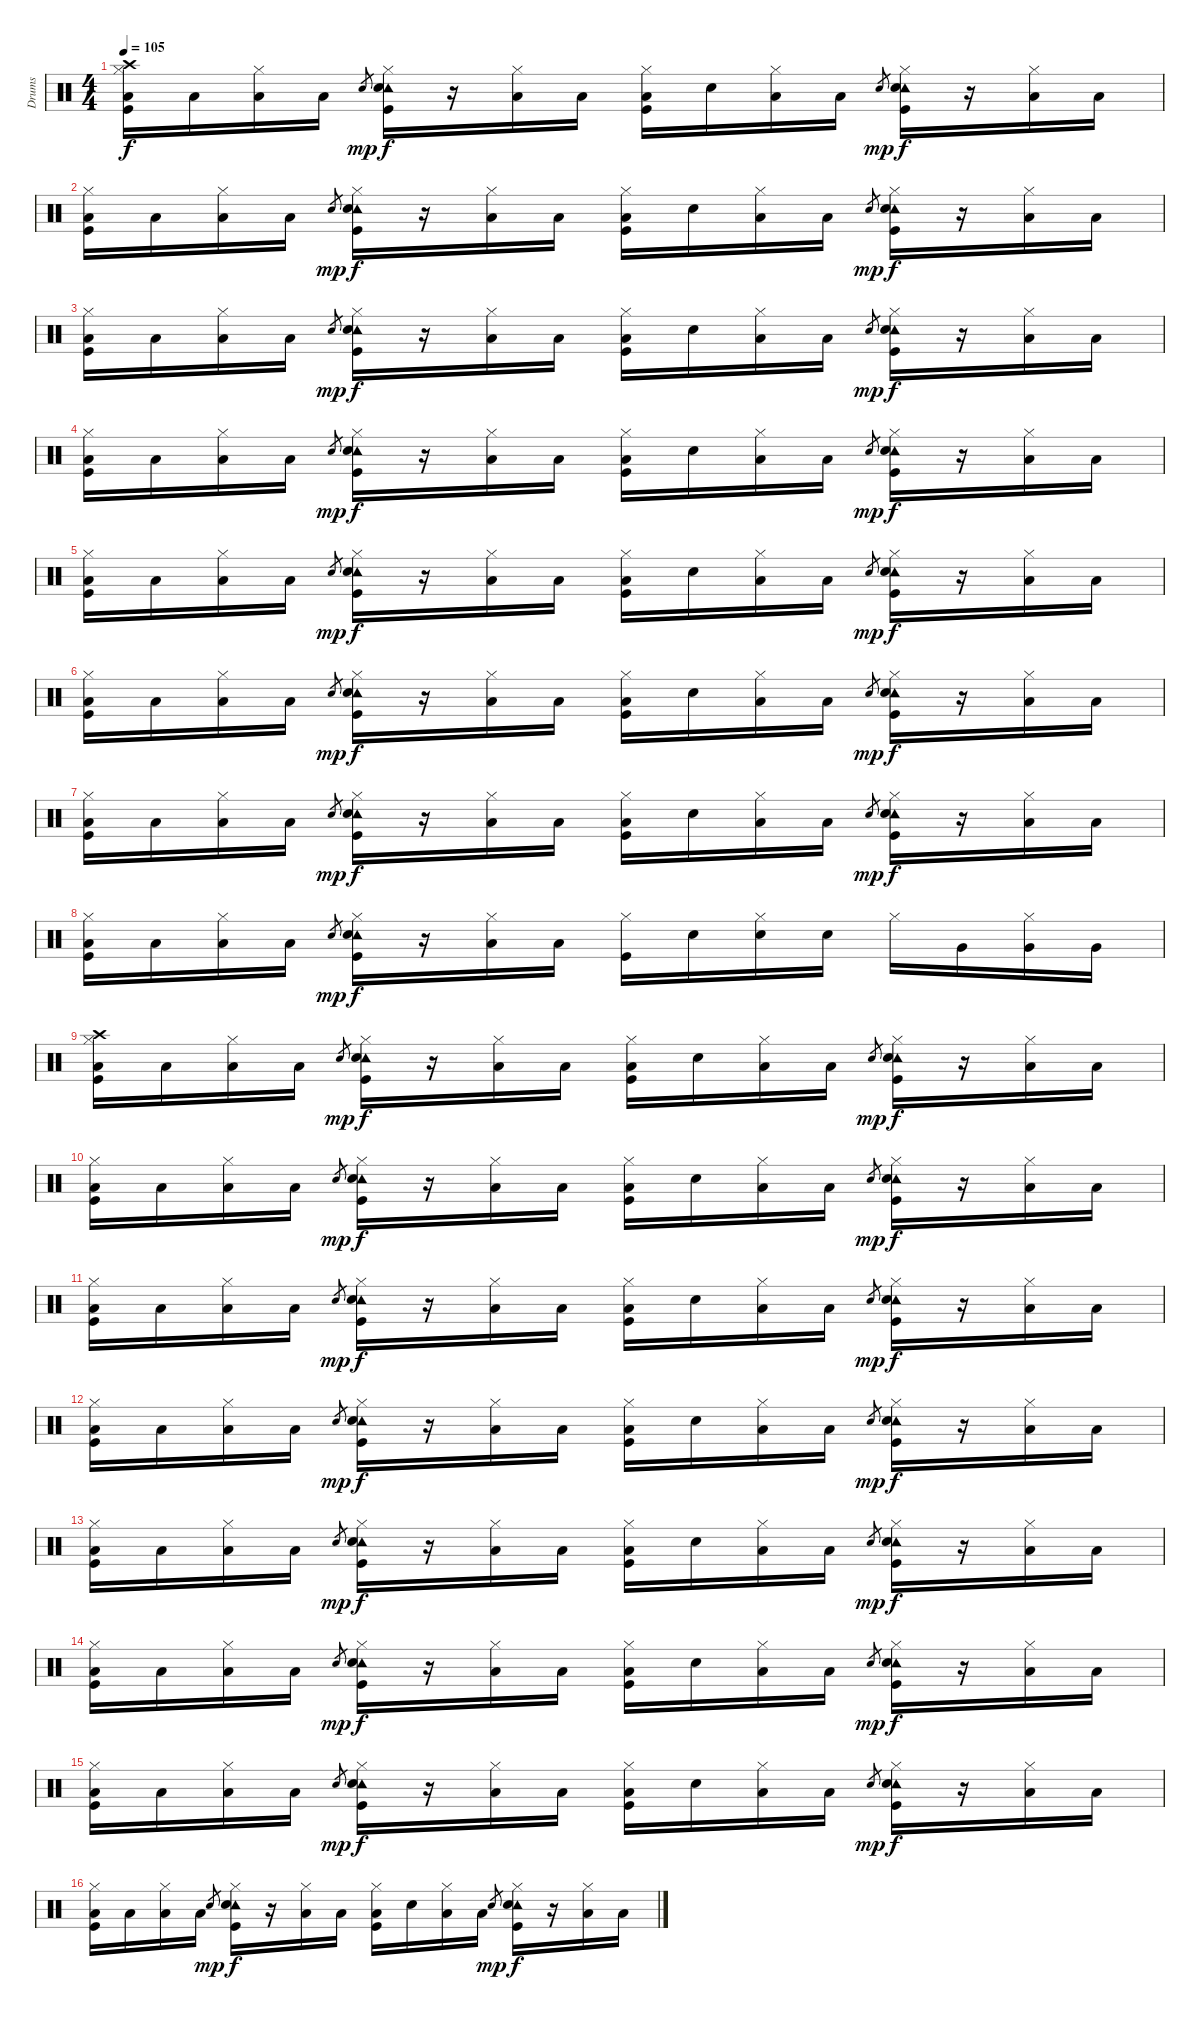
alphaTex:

\track ("Drums" "Drums") {instrument percussion}
\staff {score}
\articulation defaults
\ts (4 4)
\section ("" "")
\tempo 105
\clef neutral
\ks c
("Crash high (hit)" "Hi-Hat (closed)" "Low Floor Tom (hit)" "Kick (hit)").16{dy f} "Low Floor Tom (hit)".16 ("Hi-Hat (closed)" "Low Floor Tom (hit)").16 "Low Floor Tom (hit)".16 "Snare (hit) 2".8{gr dy mp} ("Tambourine (hit)" "Hi-Hat (closed)" "Snare (hit) 2" "Kick (hit)").16{dy f} r.16 ("Hi-Hat (closed)" "Low Floor Tom (hit)").16 "Low Floor Tom (hit)".16 ("Hi-Hat (closed)" "Low Floor Tom (hit)" "Kick (hit)").16 "Snare (hit) 2".16 ("Hi-Hat (closed)" "Low Floor Tom (hit)").16 "Low Floor Tom (hit)".16 "Snare (hit) 2".8{gr dy mp} ("Tambourine (hit)" "Hi-Hat (closed)" "Snare (hit) 2" "Kick (hit)").16{dy f} r.16 ("Hi-Hat (closed)" "Low Floor Tom (hit)").16 "Low Floor Tom (hit)".16 |
("Hi-Hat (closed)" "Low Floor Tom (hit)" "Kick (hit)").16 "Low Floor Tom (hit)".16 ("Hi-Hat (closed)" "Low Floor Tom (hit)").16 "Low Floor Tom (hit)".16 "Snare (hit) 2".8{gr dy mp} ("Tambourine (hit)" "Hi-Hat (closed)" "Snare (hit) 2" "Kick (hit)").16{dy f} r.16 ("Hi-Hat (closed)" "Low Floor Tom (hit)").16 "Low Floor Tom (hit)".16 ("Hi-Hat (closed)" "Low Floor Tom (hit)" "Kick (hit)").16 "Snare (hit) 2".16 ("Hi-Hat (closed)" "Low Floor Tom (hit)").16 "Low Floor Tom (hit)".16 "Snare (hit) 2".8{gr dy mp} ("Tambourine (hit)" "Hi-Hat (closed)" "Snare (hit) 2" "Kick (hit)").16{dy f} r.16 ("Hi-Hat (closed)" "Low Floor Tom (hit)").16 "Low Floor Tom (hit)".16 |
("Hi-Hat (closed)" "Low Floor Tom (hit)" "Kick (hit)").16 "Low Floor Tom (hit)".16 ("Hi-Hat (closed)" "Low Floor Tom (hit)").16 "Low Floor Tom (hit)".16 "Snare (hit) 2".8{gr dy mp} ("Tambourine (hit)" "Hi-Hat (closed)" "Snare (hit) 2" "Kick (hit)").16{dy f} r.16 ("Hi-Hat (closed)" "Low Floor Tom (hit)").16 "Low Floor Tom (hit)".16 ("Hi-Hat (closed)" "Low Floor Tom (hit)" "Kick (hit)").16 "Snare (hit) 2".16 ("Hi-Hat (closed)" "Low Floor Tom (hit)").16 "Low Floor Tom (hit)".16 "Snare (hit) 2".8{gr dy mp} ("Tambourine (hit)" "Hi-Hat (closed)" "Snare (hit) 2" "Kick (hit)").16{dy f} r.16 ("Hi-Hat (closed)" "Low Floor Tom (hit)").16 "Low Floor Tom (hit)".16 |
("Hi-Hat (closed)" "Low Floor Tom (hit)" "Kick (hit)").16 "Low Floor Tom (hit)".16 ("Hi-Hat (closed)" "Low Floor Tom (hit)").16 "Low Floor Tom (hit)".16 "Snare (hit) 2".8{gr dy mp} ("Tambourine (hit)" "Hi-Hat (closed)" "Snare (hit) 2" "Kick (hit)").16{dy f} r.16 ("Hi-Hat (closed)" "Low Floor Tom (hit)").16 "Low Floor Tom (hit)".16 ("Hi-Hat (closed)" "Low Floor Tom (hit)" "Kick (hit)").16 "Snare (hit) 2".16 ("Hi-Hat (closed)" "Low Floor Tom (hit)").16 "Low Floor Tom (hit)".16 "Snare (hit) 2".8{gr dy mp} ("Tambourine (hit)" "Hi-Hat (closed)" "Snare (hit) 2" "Kick (hit)").16{dy f} r.16 ("Hi-Hat (closed)" "Low Floor Tom (hit)").16 "Low Floor Tom (hit)".16 |
("Hi-Hat (closed)" "Low Floor Tom (hit)" "Kick (hit)").16 "Low Floor Tom (hit)".16 ("Hi-Hat (closed)" "Low Floor Tom (hit)").16 "Low Floor Tom (hit)".16 "Snare (hit) 2".8{gr dy mp} ("Tambourine (hit)" "Hi-Hat (closed)" "Snare (hit) 2" "Kick (hit)").16{dy f} r.16 ("Hi-Hat (closed)" "Low Floor Tom (hit)").16 "Low Floor Tom (hit)".16 ("Hi-Hat (closed)" "Low Floor Tom (hit)" "Kick (hit)").16 "Snare (hit) 2".16 ("Hi-Hat (closed)" "Low Floor Tom (hit)").16 "Low Floor Tom (hit)".16 "Snare (hit) 2".8{gr dy mp} ("Tambourine (hit)" "Hi-Hat (closed)" "Snare (hit) 2" "Kick (hit)").16{dy f} r.16 ("Hi-Hat (closed)" "Low Floor Tom (hit)").16 "Low Floor Tom (hit)".16 |
("Hi-Hat (closed)" "Low Floor Tom (hit)" "Kick (hit)").16 "Low Floor Tom (hit)".16 ("Hi-Hat (closed)" "Low Floor Tom (hit)").16 "Low Floor Tom (hit)".16 "Snare (hit) 2".8{gr dy mp} ("Tambourine (hit)" "Hi-Hat (closed)" "Snare (hit) 2" "Kick (hit)").16{dy f} r.16 ("Hi-Hat (closed)" "Low Floor Tom (hit)").16 "Low Floor Tom (hit)".16 ("Hi-Hat (closed)" "Low Floor Tom (hit)" "Kick (hit)").16 "Snare (hit) 2".16 ("Hi-Hat (closed)" "Low Floor Tom (hit)").16 "Low Floor Tom (hit)".16 "Snare (hit) 2".8{gr dy mp} ("Tambourine (hit)" "Hi-Hat (closed)" "Snare (hit) 2" "Kick (hit)").16{dy f} r.16 ("Hi-Hat (closed)" "Low Floor Tom (hit)").16 "Low Floor Tom (hit)".16 |
("Hi-Hat (closed)" "Low Floor Tom (hit)" "Kick (hit)").16 "Low Floor Tom (hit)".16 ("Hi-Hat (closed)" "Low Floor Tom (hit)").16 "Low Floor Tom (hit)".16 "Snare (hit) 2".8{gr dy mp} ("Tambourine (hit)" "Hi-Hat (closed)" "Snare (hit) 2" "Kick (hit)").16{dy f} r.16 ("Hi-Hat (closed)" "Low Floor Tom (hit)").16 "Low Floor Tom (hit)".16 ("Hi-Hat (closed)" "Low Floor Tom (hit)" "Kick (hit)").16 "Snare (hit) 2".16 ("Hi-Hat (closed)" "Low Floor Tom (hit)").16 "Low Floor Tom (hit)".16 "Snare (hit) 2".8{gr dy mp} ("Tambourine (hit)" "Hi-Hat (closed)" "Snare (hit) 2" "Kick (hit)").16{dy f} r.16 ("Hi-Hat (closed)" "Low Floor Tom (hit)").16 "Low Floor Tom (hit)".16 |
("Hi-Hat (closed)" "Low Floor Tom (hit)" "Kick (hit)").16 "Low Floor Tom (hit)".16 ("Hi-Hat (closed)" "Low Floor Tom (hit)").16 "Low Floor Tom (hit)".16 "Snare (hit) 2".8{gr dy mp} ("Tambourine (hit)" "Hi-Hat (closed)" "Snare (hit) 2" "Kick (hit)").16{dy f} r.16 ("Hi-Hat (closed)" "Low Floor Tom (hit)").16 "Low Floor Tom (hit)".16 ("Hi-Hat (closed)" "Kick (hit)").16 "Snare (hit) 2".16 ("Hi-Hat (closed)" "Snare (hit) 2").16 "Snare (hit) 2".16 "Hi-Hat (closed)".16 "Very Low Tom (hit)".16 ("Hi-Hat (closed)" "Very Low Tom (hit)").16 "Very Low Tom (hit)".16 |
("Crash high (hit)" "Hi-Hat (closed)" "Low Floor Tom (hit)" "Kick (hit)").16 "Low Floor Tom (hit)".16 ("Hi-Hat (closed)" "Low Floor Tom (hit)").16 "Low Floor Tom (hit)".16 "Snare (hit) 2".8{gr dy mp} ("Tambourine (hit)" "Hi-Hat (closed)" "Snare (hit) 2" "Kick (hit)").16{dy f} r.16 ("Hi-Hat (closed)" "Low Floor Tom (hit)").16 "Low Floor Tom (hit)".16 ("Hi-Hat (closed)" "Low Floor Tom (hit)" "Kick (hit)").16 "Snare (hit) 2".16 ("Hi-Hat (closed)" "Low Floor Tom (hit)").16 "Low Floor Tom (hit)".16 "Snare (hit) 2".8{gr dy mp} ("Tambourine (hit)" "Hi-Hat (closed)" "Snare (hit) 2" "Kick (hit)").16{dy f} r.16 ("Hi-Hat (closed)" "Low Floor Tom (hit)").16 "Low Floor Tom (hit)".16 |
("Hi-Hat (closed)" "Low Floor Tom (hit)" "Kick (hit)").16 "Low Floor Tom (hit)".16 ("Hi-Hat (closed)" "Low Floor Tom (hit)").16 "Low Floor Tom (hit)".16 "Snare (hit) 2".8{gr dy mp} ("Tambourine (hit)" "Hi-Hat (closed)" "Snare (hit) 2" "Kick (hit)").16{dy f} r.16 ("Hi-Hat (closed)" "Low Floor Tom (hit)").16 "Low Floor Tom (hit)".16 ("Hi-Hat (closed)" "Low Floor Tom (hit)" "Kick (hit)").16 "Snare (hit) 2".16 ("Hi-Hat (closed)" "Low Floor Tom (hit)").16 "Low Floor Tom (hit)".16 "Snare (hit) 2".8{gr dy mp} ("Tambourine (hit)" "Hi-Hat (closed)" "Snare (hit) 2" "Kick (hit)").16{dy f} r.16 ("Hi-Hat (closed)" "Low Floor Tom (hit)").16 "Low Floor Tom (hit)".16 |
("Hi-Hat (closed)" "Low Floor Tom (hit)" "Kick (hit)").16 "Low Floor Tom (hit)".16 ("Hi-Hat (closed)" "Low Floor Tom (hit)").16 "Low Floor Tom (hit)".16 "Snare (hit) 2".8{gr dy mp} ("Tambourine (hit)" "Hi-Hat (closed)" "Snare (hit) 2" "Kick (hit)").16{dy f} r.16 ("Hi-Hat (closed)" "Low Floor Tom (hit)").16 "Low Floor Tom (hit)".16 ("Hi-Hat (closed)" "Low Floor Tom (hit)" "Kick (hit)").16 "Snare (hit) 2".16 ("Hi-Hat (closed)" "Low Floor Tom (hit)").16 "Low Floor Tom (hit)".16 "Snare (hit) 2".8{gr dy mp} ("Tambourine (hit)" "Hi-Hat (closed)" "Snare (hit) 2" "Kick (hit)").16{dy f} r.16 ("Hi-Hat (closed)" "Low Floor Tom (hit)").16 "Low Floor Tom (hit)".16 |
("Hi-Hat (closed)" "Low Floor Tom (hit)" "Kick (hit)").16 "Low Floor Tom (hit)".16 ("Hi-Hat (closed)" "Low Floor Tom (hit)").16 "Low Floor Tom (hit)".16 "Snare (hit) 2".8{gr dy mp} ("Tambourine (hit)" "Hi-Hat (closed)" "Snare (hit) 2" "Kick (hit)").16{dy f} r.16 ("Hi-Hat (closed)" "Low Floor Tom (hit)").16 "Low Floor Tom (hit)".16 ("Hi-Hat (closed)" "Low Floor Tom (hit)" "Kick (hit)").16 "Snare (hit) 2".16 ("Hi-Hat (closed)" "Low Floor Tom (hit)").16 "Low Floor Tom (hit)".16 "Snare (hit) 2".8{gr dy mp} ("Tambourine (hit)" "Hi-Hat (closed)" "Snare (hit) 2" "Kick (hit)").16{dy f} r.16 ("Hi-Hat (closed)" "Low Floor Tom (hit)").16 "Low Floor Tom (hit)".16 |
("Hi-Hat (closed)" "Low Floor Tom (hit)" "Kick (hit)").16 "Low Floor Tom (hit)".16 ("Hi-Hat (closed)" "Low Floor Tom (hit)").16 "Low Floor Tom (hit)".16 "Snare (hit) 2".8{gr dy mp} ("Tambourine (hit)" "Hi-Hat (closed)" "Snare (hit) 2" "Kick (hit)").16{dy f} r.16 ("Hi-Hat (closed)" "Low Floor Tom (hit)").16 "Low Floor Tom (hit)".16 ("Hi-Hat (closed)" "Low Floor Tom (hit)" "Kick (hit)").16 "Snare (hit) 2".16 ("Hi-Hat (closed)" "Low Floor Tom (hit)").16 "Low Floor Tom (hit)".16 "Snare (hit) 2".8{gr dy mp} ("Tambourine (hit)" "Hi-Hat (closed)" "Snare (hit) 2" "Kick (hit)").16{dy f} r.16 ("Hi-Hat (closed)" "Low Floor Tom (hit)").16 "Low Floor Tom (hit)".16 |
("Hi-Hat (closed)" "Low Floor Tom (hit)" "Kick (hit)").16 "Low Floor Tom (hit)".16 ("Hi-Hat (closed)" "Low Floor Tom (hit)").16 "Low Floor Tom (hit)".16 "Snare (hit) 2".8{gr dy mp} ("Tambourine (hit)" "Hi-Hat (closed)" "Snare (hit) 2" "Kick (hit)").16{dy f} r.16 ("Hi-Hat (closed)" "Low Floor Tom (hit)").16 "Low Floor Tom (hit)".16 ("Hi-Hat (closed)" "Low Floor Tom (hit)" "Kick (hit)").16 "Snare (hit) 2".16 ("Hi-Hat (closed)" "Low Floor Tom (hit)").16 "Low Floor Tom (hit)".16 "Snare (hit) 2".8{gr dy mp} ("Tambourine (hit)" "Hi-Hat (closed)" "Snare (hit) 2" "Kick (hit)").16{dy f} r.16 ("Hi-Hat (closed)" "Low Floor Tom (hit)").16 "Low Floor Tom (hit)".16 |
("Hi-Hat (closed)" "Low Floor Tom (hit)" "Kick (hit)").16 "Low Floor Tom (hit)".16 ("Hi-Hat (closed)" "Low Floor Tom (hit)").16 "Low Floor Tom (hit)".16 "Snare (hit) 2".8{gr dy mp} ("Tambourine (hit)" "Hi-Hat (closed)" "Snare (hit) 2" "Kick (hit)").16{dy f} r.16 ("Hi-Hat (closed)" "Low Floor Tom (hit)").16 "Low Floor Tom (hit)".16 ("Hi-Hat (closed)" "Low Floor Tom (hit)" "Kick (hit)").16 "Snare (hit) 2".16 ("Hi-Hat (closed)" "Low Floor Tom (hit)").16 "Low Floor Tom (hit)".16 "Snare (hit) 2".8{gr dy mp} ("Tambourine (hit)" "Hi-Hat (closed)" "Snare (hit) 2" "Kick (hit)").16{dy f} r.16 ("Hi-Hat (closed)" "Low Floor Tom (hit)").16 "Low Floor Tom (hit)".16 |
("Hi-Hat (closed)" "Low Floor Tom (hit)" "Kick (hit)").16 "Low Floor Tom (hit)".16 ("Hi-Hat (closed)" "Low Floor Tom (hit)").16 "Low Floor Tom (hit)".16 "Snare (hit) 2".8{gr dy mp} ("Tambourine (hit)" "Hi-Hat (closed)" "Snare (hit) 2" "Kick (hit)").16{dy f} r.16 ("Hi-Hat (closed)" "Low Floor Tom (hit)").16 "Low Floor Tom (hit)".16 ("Hi-Hat (closed)" "Low Floor Tom (hit)" "Kick (hit)").16 "Snare (hit) 2".16 ("Hi-Hat (closed)" "Low Floor Tom (hit)").16 "Low Floor Tom (hit)".16 "Snare (hit) 2".8{gr dy mp} ("Tambourine (hit)" "Hi-Hat (closed)" "Snare (hit) 2" "Kick (hit)").16{dy f} r.16 ("Hi-Hat (closed)" "Low Floor Tom (hit)").16 "Low Floor Tom (hit)".16
